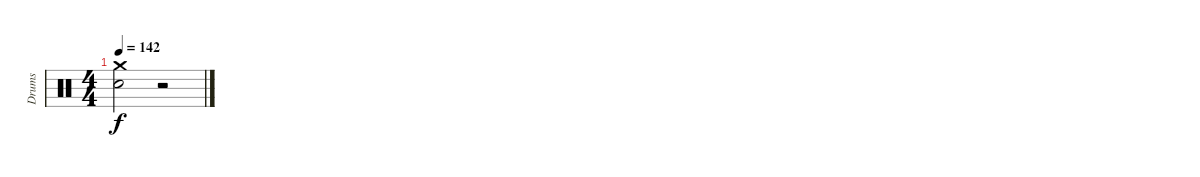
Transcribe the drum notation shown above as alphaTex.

\track ("Drums" "Drums") {instrument percussion}
\staff {score}
\articulation defaults
\ts (4 4)
\tempo 142
\clef neutral
\ks c
("Crash medium (hit)" "Snare (hit) 2").2{dy f} r.2
